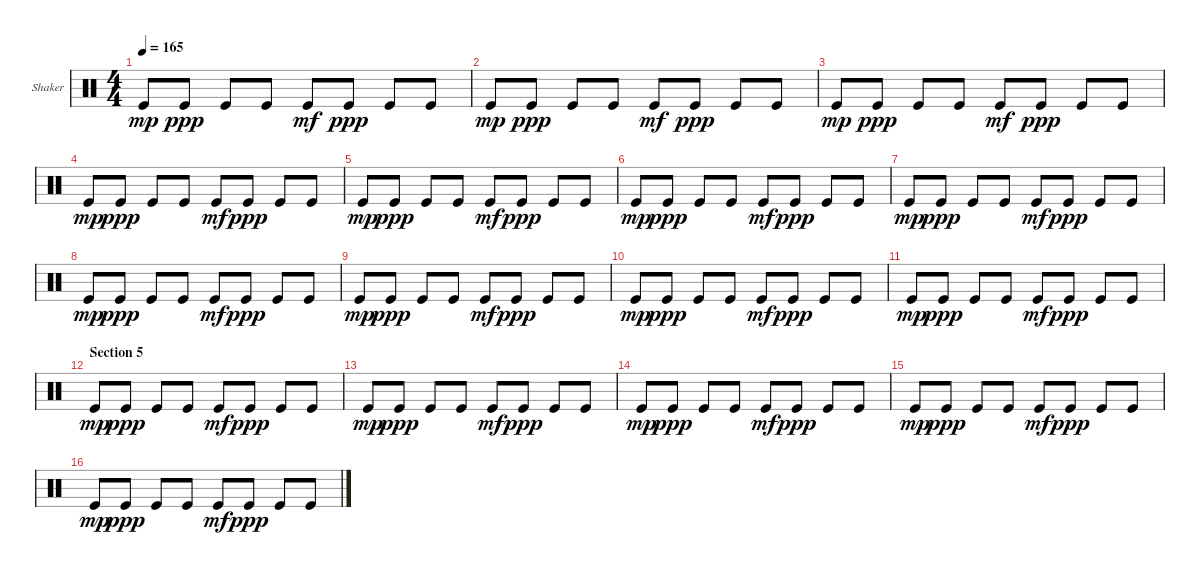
\bracketExtendMode groupsimilarinstruments
\firstSystemTrackNameOrientation horizontal
\otherSystemsTrackNameOrientation horizontal
\track ("Shaker" "Shaker") {instrument percussion}
\staff {score}
\articulation defaults
\ts (4 4)
\tempo 165
\clef neutral
\ks c "Kick (hit)".8{dy mp} "Kick (hit)".8{dy ppp} "Kick (hit)".8 "Kick (hit)".8 "Kick (hit)".8{dy mf} "Kick (hit)".8{dy ppp} "Kick (hit)".8 "Kick (hit)".8
|
"Kick (hit)".8{dy mp} "Kick (hit)".8{dy ppp} "Kick (hit)".8 "Kick (hit)".8 "Kick (hit)".8{dy mf} "Kick (hit)".8{dy ppp} "Kick (hit)".8 "Kick (hit)".8 |
"Kick (hit)".8{dy mp} "Kick (hit)".8{dy ppp} "Kick (hit)".8 "Kick (hit)".8 "Kick (hit)".8{dy mf} "Kick (hit)".8{dy ppp} "Kick (hit)".8 "Kick (hit)".8 |
"Kick (hit)".8{dy mp} "Kick (hit)".8{dy ppp} "Kick (hit)".8 "Kick (hit)".8 "Kick (hit)".8{dy mf} "Kick (hit)".8{dy ppp} "Kick (hit)".8 "Kick (hit)".8 |
"Kick (hit)".8{dy mp} "Kick (hit)".8{dy ppp} "Kick (hit)".8 "Kick (hit)".8 "Kick (hit)".8{dy mf} "Kick (hit)".8{dy ppp} "Kick (hit)".8 "Kick (hit)".8 |
"Kick (hit)".8{dy mp} "Kick (hit)".8{dy ppp} "Kick (hit)".8 "Kick (hit)".8 "Kick (hit)".8{dy mf} "Kick (hit)".8{dy ppp} "Kick (hit)".8 "Kick (hit)".8 |
"Kick (hit)".8{dy mp} "Kick (hit)".8{dy ppp} "Kick (hit)".8 "Kick (hit)".8 "Kick (hit)".8{dy mf} "Kick (hit)".8{dy ppp} "Kick (hit)".8 "Kick (hit)".8 |
"Kick (hit)".8{dy mp} "Kick (hit)".8{dy ppp} "Kick (hit)".8 "Kick (hit)".8 "Kick (hit)".8{dy mf} "Kick (hit)".8{dy ppp} "Kick (hit)".8 "Kick (hit)".8 |
"Kick (hit)".8{dy mp} "Kick (hit)".8{dy ppp} "Kick (hit)".8 "Kick (hit)".8 "Kick (hit)".8{dy mf} "Kick (hit)".8{dy ppp} "Kick (hit)".8 "Kick (hit)".8 |
"Kick (hit)".8{dy mp} "Kick (hit)".8{dy ppp} "Kick (hit)".8 "Kick (hit)".8 "Kick (hit)".8{dy mf} "Kick (hit)".8{dy ppp} "Kick (hit)".8 "Kick (hit)".8 |
"Kick (hit)".8{dy mp} "Kick (hit)".8{dy ppp} "Kick (hit)".8 "Kick (hit)".8 "Kick (hit)".8{dy mf} "Kick (hit)".8{dy ppp} "Kick (hit)".8 "Kick (hit)".8 |
\section ("" "Section 5")
"Kick (hit)".8{dy mp} "Kick (hit)".8{dy ppp} "Kick (hit)".8 "Kick (hit)".8 "Kick (hit)".8{dy mf} "Kick (hit)".8{dy ppp} "Kick (hit)".8 "Kick (hit)".8 |
"Kick (hit)".8{dy mp} "Kick (hit)".8{dy ppp} "Kick (hit)".8 "Kick (hit)".8 "Kick (hit)".8{dy mf} "Kick (hit)".8{dy ppp} "Kick (hit)".8 "Kick (hit)".8 |
"Kick (hit)".8{dy mp} "Kick (hit)".8{dy ppp} "Kick (hit)".8 "Kick (hit)".8 "Kick (hit)".8{dy mf} "Kick (hit)".8{dy ppp} "Kick (hit)".8 "Kick (hit)".8 |
"Kick (hit)".8{dy mp} "Kick (hit)".8{dy ppp} "Kick (hit)".8 "Kick (hit)".8 "Kick (hit)".8{dy mf} "Kick (hit)".8{dy ppp} "Kick (hit)".8 "Kick (hit)".8 |
"Kick (hit)".8{dy mp} "Kick (hit)".8{dy ppp} "Kick (hit)".8 "Kick (hit)".8 "Kick (hit)".8{dy mf} "Kick (hit)".8{dy ppp} "Kick (hit)".8 "Kick (hit)".8
